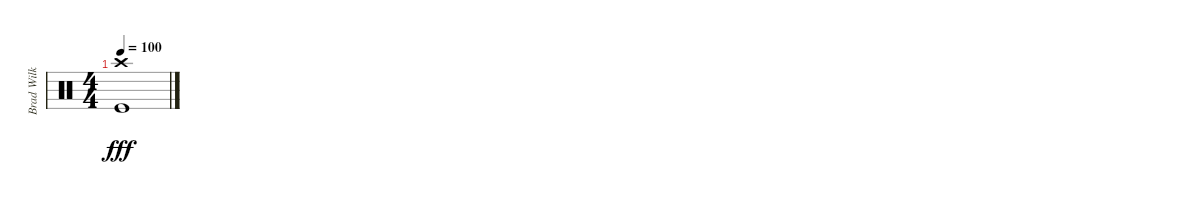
\track ("Brad Wilk - Drums" "Brad Wilk ") {instrument percussion}
\staff {score}
\articulation defaults
\ts (4 4)
\tempo 100
\clef neutral
\ks c
("Crash high (hit)" "Kick (hit)").1{dy fff}
